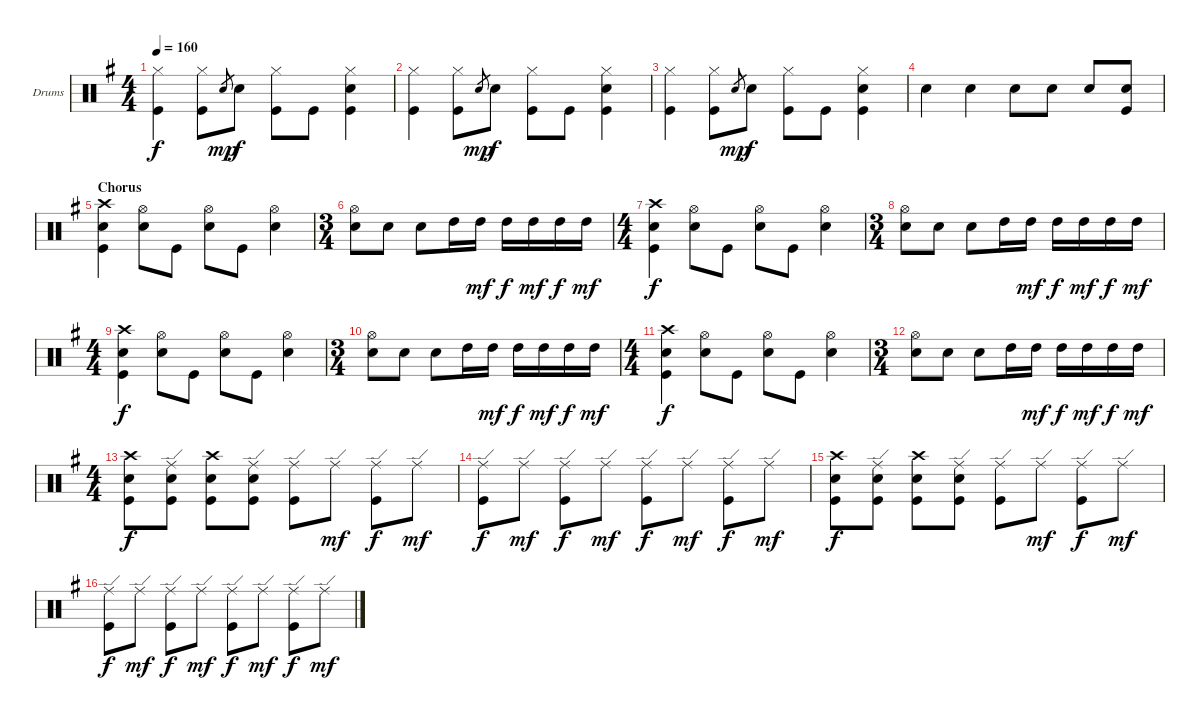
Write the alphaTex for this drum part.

\defaultSystemsLayout 4
\bracketExtendMode groupsimilarinstruments
\firstSystemTrackNameOrientation horizontal
\otherSystemsTrackNameOrientation horizontal
\track ("Drumkit" "Drums") {instrument percussion}
\staff {score}
\articulation defaults
\ts (4 4)
\tempo 160
\clef neutral
\scale
1.04288
\ks g
("Hi-Hat (closed)" "Kick (hit)").4{dy f} ("Hi-Hat (closed)" "Kick (hit)").8 "Snare (hit) 2".8{gr dy mp} "Snare (hit) 2".8{dy f} ("Hi-Hat (closed)" "Kick (hit)").8 "Kick (hit)".8 ("Hi-Hat (closed)" "Snare (hit) 2" "Kick (hit)").4 |
\scale
0.957125 ("Hi-Hat (closed)" "Kick (hit)").4 ("Hi-Hat (closed)" "Kick (hit)").8 "Snare (hit) 2".8{gr dy mp} "Snare (hit) 2".8{dy f} ("Hi-Hat (closed)" "Kick (hit)").8 "Kick (hit)".8 ("Hi-Hat (closed)" "Snare (hit) 2" "Kick (hit)").4 |
\scale
1.04288 ("Hi-Hat (closed)" "Kick (hit)").4 ("Hi-Hat (closed)" "Kick (hit)").8 "Snare (hit) 2".8{gr dy mp} "Snare (hit) 2".8{dy f} ("Hi-Hat (closed)" "Kick (hit)").8 "Kick (hit)".8 ("Hi-Hat (closed)" "Snare (hit) 2" "Kick (hit)").4 |
\scale
0.957125 "Snare (hit) 2".4 "Snare (hit) 2".4 "Snare (hit) 2".8 "Snare (hit) 2".8 "Snare (hit) 2".8 ("Snare (hit) 2" "Kick (hit)").8 |
\section ("" "Chorus")
\scale
1.04288 ("Crash high (hit)" "Snare (hit) 2" "Kick (hit)").4 ("Hi-Hat (open)" "Snare (hit) 2").8 "Kick (hit)".8 ("Hi-Hat (open)" "Snare (hit) 2").8 "Kick (hit)".8 ("Hi-Hat (open)" "Snare (hit) 2").4 |
\ts (3 4)
\scale
0.957125 ("Hi-Hat (open)" "Snare (hit) 2").8 "Snare (hit) 2".8 "Snare (hit) 2".8 "High Tom (hit)".16 "High Tom (hit)".16{dy mf} "High Tom (hit)".16{dy f} "High Tom (hit)".16{dy mf} "High Tom (hit)".16{dy f} "High Tom (hit)".16{dy mf} |
\ts (4 4)
\scale
1.07314 ("Crash high (hit)" "Snare (hit) 2" "Kick (hit)").4{dy f} ("Hi-Hat (open)" "Snare (hit) 2").8 "Kick (hit)".8 ("Hi-Hat (open)" "Snare (hit) 2").8 "Kick (hit)".8 ("Hi-Hat (open)" "Snare (hit) 2").4 |
\ts (3 4)
\scale
0.92686 ("Hi-Hat (open)" "Snare (hit) 2").8 "Snare (hit) 2".8 "Snare (hit) 2".8 "High Tom (hit)".16 "High Tom (hit)".16{dy mf} "High Tom (hit)".16{dy f} "High Tom (hit)".16{dy mf} "High Tom (hit)".16{dy f} "High Tom (hit)".16{dy mf} |
\ts (4 4)
\scale
1.07314 ("Crash high (hit)" "Snare (hit) 2" "Kick (hit)").4{dy f} ("Hi-Hat (open)" "Snare (hit) 2").8 "Kick (hit)".8 ("Hi-Hat (open)" "Snare (hit) 2").8 "Kick (hit)".8 ("Hi-Hat (open)" "Snare (hit) 2").4 |
\ts (3 4)
\scale
0.92686 ("Hi-Hat (open)" "Snare (hit) 2").8 "Snare (hit) 2".8 "Snare (hit) 2".8 "High Tom (hit)".16 "High Tom (hit)".16{dy mf} "High Tom (hit)".16{dy f} "High Tom (hit)".16{dy mf} "High Tom (hit)".16{dy f} "High Tom (hit)".16{dy mf} |
\ts (4 4)
\scale
1.07314 ("Crash high (hit)" "Snare (hit) 2" "Kick (hit)").4{dy f} ("Hi-Hat (open)" "Snare (hit) 2").8 "Kick (hit)".8 ("Hi-Hat (open)" "Snare (hit) 2").8 "Kick (hit)".8 ("Hi-Hat (open)" "Snare (hit) 2").4 |
\ts (3 4)
\scale
0.92686 ("Hi-Hat (open)" "Snare (hit) 2").8 "Snare (hit) 2".8 "Snare (hit) 2".8 "High Tom (hit)".16 "High Tom (hit)".16{dy mf} "High Tom (hit)".16{dy f} "High Tom (hit)".16{dy mf} "High Tom (hit)".16{dy f} "High Tom (hit)".16{dy mf} |
\ts (4 4)
\scale
1.07314 ("Crash high (hit)" "Snare (hit) 2" "Kick (hit)").8{dy f} ("Ride (edge)" "Snare (hit) 2" "Kick (hit)").8 ("Crash high (hit)" "Snare (hit) 2" "Kick (hit)").8 ("Ride (edge)" "Snare (hit) 2" "Kick (hit)").8 ("Ride (edge)" "Kick (hit)").8 "Ride (edge)".8{dy mf} ("Ride (edge)" "Kick (hit)").8{dy f} "Ride (edge)".8{dy mf} |
\scale
0.92686 ("Ride (edge)" "Kick (hit)").8{dy f} "Ride (edge)".8{dy mf} ("Ride (edge)" "Kick (hit)").8{dy f} "Ride (edge)".8{dy mf} ("Ride (edge)" "Kick (hit)").8{dy f} "Ride (edge)".8{dy mf} ("Ride (edge)" "Kick (hit)").8{dy f} "Ride (edge)".8{dy mf} |
\scale
1.04288 ("Crash high (hit)" "Snare (hit) 2" "Kick (hit)").8{dy f} ("Ride (edge)" "Snare (hit) 2" "Kick (hit)").8 ("Crash high (hit)" "Snare (hit) 2" "Kick (hit)").8 ("Ride (edge)" "Snare (hit) 2" "Kick (hit)").8 ("Ride (edge)" "Kick (hit)").8 "Ride (edge)".8{dy mf} ("Ride (edge)" "Kick (hit)").8{dy f} "Ride (edge)".8{dy mf} |
\scale
0.957125 ("Ride (edge)" "Kick (hit)").8{dy f} "Ride (edge)".8{dy mf} ("Ride (edge)" "Kick (hit)").8{dy f} "Ride (edge)".8{dy mf} ("Ride (edge)" "Kick (hit)").8{dy f} "Ride (edge)".8{dy mf} ("Ride (edge)" "Kick (hit)").8{dy f} "Ride (edge)".8{dy mf}
